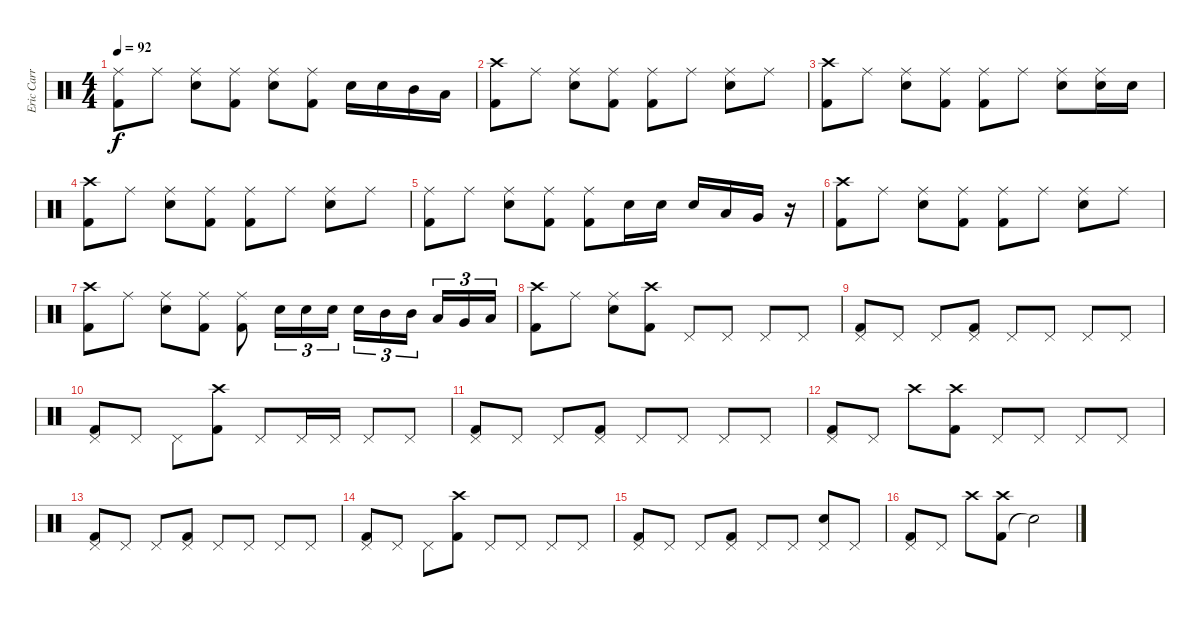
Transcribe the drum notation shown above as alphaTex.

\track ("Eric Carr" "Eric Carr") {instrument percussion}
\staff {score}
\articulation defaults
\ts (4 4)
\tempo 92
\clef neutral
\ks c
("Kick (hit) 2" "Ride (middle)").8{dy f} "Ride (middle)".8 ("Snare (hit) 2" "Ride (middle)").8 ("Kick (hit) 2" "Ride (middle)").8 ("Snare (hit) 2" "Ride (middle)").8 ("Kick (hit) 2" "Ride (middle)").8 "Snare (hit) 2".16 "Snare (hit) 2".16 "Mid Tom (hit)".16 "Low Tom (hit)".16 |
("Kick (hit) 2" "Crash high (hit)").8 "Ride (middle)".8 ("Snare (hit) 2" "Ride (middle)").8 ("Kick (hit) 2" "Ride (middle)").8 ("Kick (hit) 2" "Ride (middle)").8 "Ride (middle)".8 ("Snare (hit) 2" "Ride (middle)").8 "Ride (middle)".8 |
("Kick (hit) 2" "Crash high (hit)").8 "Ride (middle)".8 ("Snare (hit) 2" "Ride (middle)").8 ("Kick (hit) 2" "Ride (middle)").8 ("Kick (hit) 2" "Ride (middle)").8 "Ride (middle)".8 ("Snare (hit) 2" "Ride (middle)").8 ("Snare (hit) 2" "Ride (middle)").16 "Snare (hit) 2".16 |
("Kick (hit) 2" "Crash high (hit)").8 "Ride (middle)".8 ("Snare (hit) 2" "Ride (middle)").8 ("Kick (hit) 2" "Ride (middle)").8 ("Kick (hit) 2" "Ride (middle)").8 "Ride (middle)".8 ("Snare (hit) 2" "Ride (middle)").8 "Ride (middle)".8 |
("Kick (hit) 2" "Ride (middle)").8 "Ride (middle)".8 ("Snare (hit) 2" "Ride (middle)").8 ("Kick (hit) 2" "Ride (middle)").8 ("Kick (hit) 2" "Ride (middle)").8 "Snare (hit) 2".16 "Snare (hit) 2".16 "Snare (hit) 2".16 "Low Tom (hit)".16 "Very Low Tom (hit)".16 r.16 |
("Kick (hit) 2" "Crash high (hit)").8 "Ride (middle)".8 ("Snare (hit) 2" "Ride (middle)").8 ("Kick (hit) 2" "Ride (middle)").8 ("Kick (hit) 2" "Ride (middle)").8 "Ride (middle)".8 ("Snare (hit) 2" "Ride (middle)").8 "Ride (middle)".8 |
("Kick (hit) 2" "Crash high (hit)").8 "Ride (middle)".8 ("Snare (hit) 2" "Ride (middle)").8 ("Kick (hit) 2" "Ride (middle)").8 ("Kick (hit) 2" "Ride (middle)").8 "Snare (hit) 2".16{tu (3 2)} "Snare (hit) 2".16{tu (3 2)} "Snare (hit) 2".16{tu (3 2)} "Snare (hit) 2".16{tu (3 2)} "Mid Tom (hit)".16{tu (3 2)} "Mid Tom (hit)".16{tu (3 2)} "Low Tom (hit)".16{tu (3 2)} "Very Low Tom (hit)".16{tu (3 2)} "Low Floor Tom (hit)".16{tu (3 2)} |
("Kick (hit) 2" "Crash high (hit)").8 "Ride (middle)".8 ("Snare (hit) 2" "Ride (middle)").8 ("Kick (hit) 2" "Crash high (hit)").8 "Pedal Hi-Hat (hit)".8 "Pedal Hi-Hat (hit)".8 "Pedal Hi-Hat (hit)".8 "Pedal Hi-Hat (hit)".8 |
("Kick (hit) 2" "Pedal Hi-Hat (hit)").8 "Pedal Hi-Hat (hit)".8 "Pedal Hi-Hat (hit)".8 ("Kick (hit) 2" "Pedal Hi-Hat (hit)").8 "Pedal Hi-Hat (hit)".8 "Pedal Hi-Hat (hit)".8 "Pedal Hi-Hat (hit)".8 "Pedal Hi-Hat (hit)".8 |
("Kick (hit) 2" "Pedal Hi-Hat (hit)").8 "Pedal Hi-Hat (hit)".8 "Pedal Hi-Hat (hit)".8 ("Kick (hit) 2" "Crash high (hit)").8 "Pedal Hi-Hat (hit)".8 "Pedal Hi-Hat (hit)".16 "Pedal Hi-Hat (hit)".16 "Pedal Hi-Hat (hit)".8 "Pedal Hi-Hat (hit)".8 |
("Kick (hit) 2" "Pedal Hi-Hat (hit)").8 "Pedal Hi-Hat (hit)".8 "Pedal Hi-Hat (hit)".8 ("Kick (hit) 2" "Pedal Hi-Hat (hit)").8 "Pedal Hi-Hat (hit)".8 "Pedal Hi-Hat (hit)".8 "Pedal Hi-Hat (hit)".8 "Pedal Hi-Hat (hit)".8 |
("Kick (hit) 2" "Pedal Hi-Hat (hit)").8 "Pedal Hi-Hat (hit)".8 "Crash high (hit)".8 ("Kick (hit) 2" "Crash high (hit)").8 "Pedal Hi-Hat (hit)".8 "Pedal Hi-Hat (hit)".8 "Pedal Hi-Hat (hit)".8 "Pedal Hi-Hat (hit)".8 |
("Kick (hit) 2" "Pedal Hi-Hat (hit)").8 "Pedal Hi-Hat (hit)".8 "Pedal Hi-Hat (hit)".8 ("Kick (hit) 2" "Pedal Hi-Hat (hit)").8 "Pedal Hi-Hat (hit)".8 "Pedal Hi-Hat (hit)".8 "Pedal Hi-Hat (hit)".8 "Pedal Hi-Hat (hit)".8 |
("Kick (hit) 2" "Pedal Hi-Hat (hit)").8{volume 0} "Pedal Hi-Hat (hit)".8 "Pedal Hi-Hat (hit)".8 ("Kick (hit) 2" "Crash high (hit)").8 "Pedal Hi-Hat (hit)".8 "Pedal Hi-Hat (hit)".8 "Pedal Hi-Hat (hit)".8 "Pedal Hi-Hat (hit)".8 |
("Kick (hit) 2" "Pedal Hi-Hat (hit)").8 "Pedal Hi-Hat (hit)".8 "Pedal Hi-Hat (hit)".8 ("Kick (hit) 2" "Pedal Hi-Hat (hit)").8 "Pedal Hi-Hat (hit)".8 "Pedal Hi-Hat (hit)".8 ("Snare (hit) 2" "Pedal Hi-Hat (hit)").8 "Pedal Hi-Hat (hit)".8 |
("Kick (hit) 2" "Pedal Hi-Hat (hit)").8 "Pedal Hi-Hat (hit)".8 "Crash high (hit)".8 ("Kick (hit) 2" "Crash high (hit)").8 "Snare (hit)"{t}.2
